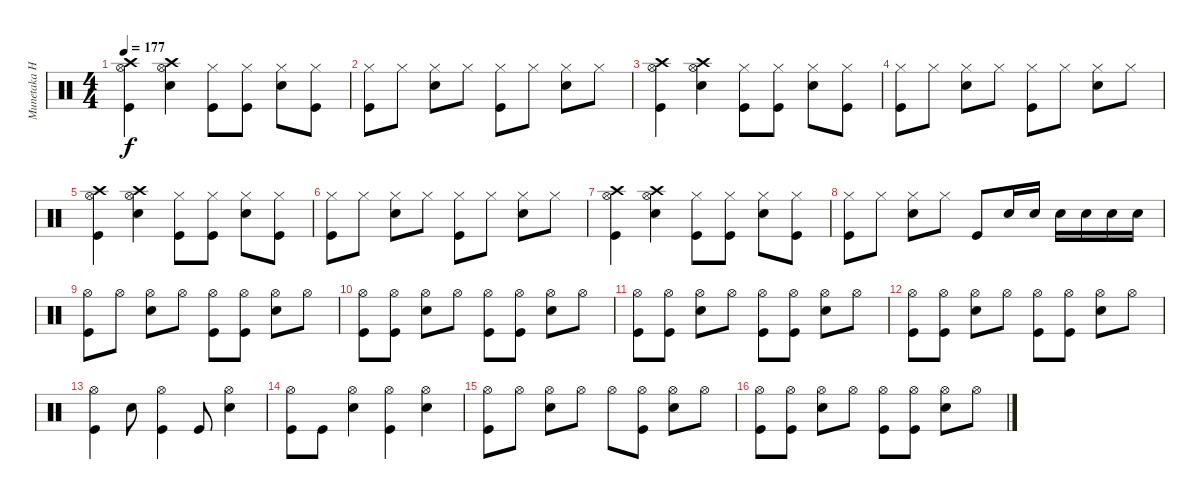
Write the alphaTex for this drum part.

\track ("Munetaka Higuchi" "Munetaka H") {instrument percussion}
\staff {score}
\articulation defaults
\ts (4 4)
\tempo 177
\clef neutral
\ks c
("Crash high (hit)" "Hi-Hat (open)" "Kick (hit)").4{dy f} ("Crash high (hit)" "Hi-Hat (open)" "Snare (hit) 2").4 ("Hi-Hat (closed)" "Kick (hit)").8 ("Hi-Hat (closed)" "Kick (hit)").8 ("Hi-Hat (closed)" "Snare (hit) 2").8 ("Hi-Hat (closed)" "Kick (hit)").8 |
("Hi-Hat (closed)" "Kick (hit)").8 "Hi-Hat (closed)".8 ("Hi-Hat (closed)" "Snare (hit) 2").8 "Hi-Hat (closed)".8 ("Hi-Hat (closed)" "Kick (hit)").8 "Hi-Hat (closed)".8 ("Hi-Hat (closed)" "Snare (hit) 2").8 "Hi-Hat (closed)".8 |
("Crash high (hit)" "Hi-Hat (open)" "Kick (hit)").4 ("Crash high (hit)" "Hi-Hat (open)" "Snare (hit) 2").4 ("Hi-Hat (closed)" "Kick (hit)").8 ("Hi-Hat (closed)" "Kick (hit)").8 ("Hi-Hat (closed)" "Snare (hit) 2").8 ("Hi-Hat (closed)" "Kick (hit)").8 |
("Hi-Hat (closed)" "Kick (hit)").8 "Hi-Hat (closed)".8 ("Hi-Hat (closed)" "Snare (hit) 2").8 "Hi-Hat (closed)".8 ("Hi-Hat (closed)" "Kick (hit)").8 "Hi-Hat (closed)".8 ("Hi-Hat (closed)" "Snare (hit) 2").8 "Hi-Hat (closed)".8 |
("Crash high (hit)" "Hi-Hat (open)" "Kick (hit)").4 ("Crash high (hit)" "Hi-Hat (open)" "Snare (hit) 2").4 ("Hi-Hat (closed)" "Kick (hit)").8 ("Hi-Hat (closed)" "Kick (hit)").8 ("Hi-Hat (closed)" "Snare (hit) 2").8 ("Hi-Hat (closed)" "Kick (hit)").8 |
("Hi-Hat (closed)" "Kick (hit)").8 "Hi-Hat (closed)".8 ("Hi-Hat (closed)" "Snare (hit) 2").8 "Hi-Hat (closed)".8 ("Hi-Hat (closed)" "Kick (hit)").8 "Hi-Hat (closed)".8 ("Hi-Hat (closed)" "Snare (hit) 2").8 "Hi-Hat (closed)".8 |
("Crash high (hit)" "Hi-Hat (open)" "Kick (hit)").4 ("Crash high (hit)" "Hi-Hat (open)" "Snare (hit) 2").4 ("Hi-Hat (closed)" "Kick (hit)").8 ("Hi-Hat (closed)" "Kick (hit)").8 ("Hi-Hat (closed)" "Snare (hit) 2").8 ("Hi-Hat (closed)" "Kick (hit)").8 |
("Hi-Hat (closed)" "Kick (hit)").8 "Hi-Hat (closed)".8 ("Hi-Hat (closed)" "Snare (hit) 2").8 "Hi-Hat (closed)".8 "Kick (hit)".8 "Snare (hit) 2".16 "Snare (hit) 2".16 "Snare (hit) 2".16 "Snare (hit) 2".16 "Snare (hit) 2".16 "Snare (hit) 2".16 |
("Hi-Hat (open)" "Kick (hit)").8 "Hi-Hat (open)".8 ("Hi-Hat (open)" "Snare (hit) 2").8 "Hi-Hat (open)".8 ("Hi-Hat (open)" "Kick (hit)").8 ("Hi-Hat (open)" "Kick (hit)").8 ("Hi-Hat (open)" "Snare (hit) 2").8 "Hi-Hat (open)".8 |
("Hi-Hat (open)" "Kick (hit)").8 ("Hi-Hat (open)" "Kick (hit)").8 ("Hi-Hat (open)" "Snare (hit) 2").8 "Hi-Hat (open)".8 ("Hi-Hat (open)" "Kick (hit)").8 ("Hi-Hat (open)" "Kick (hit)").8 ("Hi-Hat (open)" "Snare (hit) 2").8 "Hi-Hat (open)".8 |
("Hi-Hat (open)" "Kick (hit)").8 ("Hi-Hat (open)" "Kick (hit)").8 ("Hi-Hat (open)" "Snare (hit) 2").8 "Hi-Hat (open)".8 ("Hi-Hat (open)" "Kick (hit)").8 ("Hi-Hat (open)" "Kick (hit)").8 ("Hi-Hat (open)" "Snare (hit) 2").8 "Hi-Hat (open)".8 |
("Hi-Hat (open)" "Kick (hit)").8 ("Hi-Hat (open)" "Kick (hit)").8 ("Hi-Hat (open)" "Snare (hit) 2").8 "Hi-Hat (open)".8 ("Hi-Hat (open)" "Kick (hit)").8 ("Hi-Hat (open)" "Kick (hit)").8 ("Hi-Hat (open)" "Snare (hit) 2").8 "Hi-Hat (open)".8 |
("Hi-Hat (open)" "Kick (hit)").4 "Snare (hit) 2".8 ("Hi-Hat (open)" "Kick (hit)").4 "Kick (hit)".8 ("Hi-Hat (open)" "Snare (hit) 2").4 |
("Hi-Hat (open)" "Kick (hit)").8 "Kick (hit)".8 ("Hi-Hat (open)" "Snare (hit) 2").4 ("Hi-Hat (open)" "Kick (hit)").4 ("Hi-Hat (open)" "Snare (hit) 2").4 |
("Hi-Hat (open)" "Kick (hit)").8 "Hi-Hat (open)".8 ("Hi-Hat (open)" "Snare (hit) 2").8 "Hi-Hat (open)".8 "Hi-Hat (open)".8 ("Hi-Hat (open)" "Kick (hit)").8 ("Hi-Hat (open)" "Snare (hit) 2").8 "Hi-Hat (open)".8 |
("Hi-Hat (open)" "Kick (hit)").8 ("Hi-Hat (open)" "Kick (hit)").8 ("Hi-Hat (open)" "Snare (hit) 2").8 "Hi-Hat (open)".8 ("Hi-Hat (open)" "Kick (hit)").8 ("Hi-Hat (open)" "Kick (hit)").8 ("Hi-Hat (open)" "Snare (hit) 2").8 "Hi-Hat (open)".8
